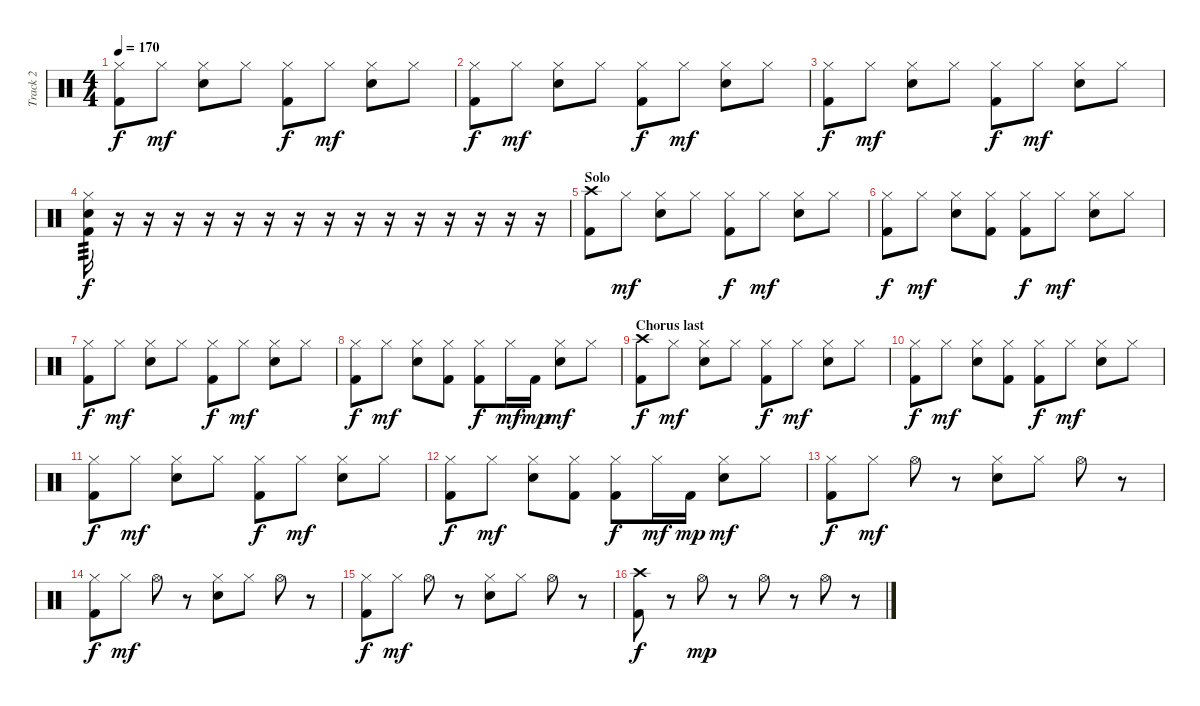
\track ("Track 2" "Track 2") {instrument percussion}
\staff {score}
\articulation defaults
\ts (4 4)
\tempo 170
\clef neutral
\ks c
("Hi-Hat (closed)" "Kick (hit) 2").8{dy f} "Hi-Hat (closed)".8{dy mf} ("Hi-Hat (closed)" "Electric Snare (hit)").8 "Hi-Hat (closed)".8 ("Hi-Hat (closed)" "Kick (hit) 2").8{dy f} "Hi-Hat (closed)".8{dy mf} ("Hi-Hat (closed)" "Electric Snare (hit)").8 "Hi-Hat (closed)".8 |
("Hi-Hat (closed)" "Kick (hit) 2").8{dy f} "Hi-Hat (closed)".8{dy mf} ("Hi-Hat (closed)" "Electric Snare (hit)").8 "Hi-Hat (closed)".8 ("Hi-Hat (closed)" "Kick (hit) 2").8{dy f} "Hi-Hat (closed)".8{dy mf} ("Hi-Hat (closed)" "Electric Snare (hit)").8 "Hi-Hat (closed)".8 |
("Hi-Hat (closed)" "Kick (hit) 2").8{dy f} "Hi-Hat (closed)".8{dy mf} ("Hi-Hat (closed)" "Electric Snare (hit)").8 "Hi-Hat (closed)".8 ("Hi-Hat (closed)" "Kick (hit) 2").8{dy f} "Hi-Hat (closed)".8{dy mf} ("Hi-Hat (closed)" "Electric Snare (hit)").8 "Hi-Hat (closed)".8 |
("Hi-Hat (closed)" "Electric Snare (hit)" "Kick (hit) 2").16{tp 3 dy f} r.16 r.16 r.16 r.16 r.16 r.16 r.16 r.16 r.16 r.16 r.16 r.16 r.16 r.16 r.16 |
\section ("" "Solo")
("Crash high (hit)" "Kick (hit) 2").8 "Hi-Hat (closed)".8{dy mf} ("Hi-Hat (closed)" "Electric Snare (hit)").8 "Hi-Hat (closed)".8 ("Hi-Hat (closed)" "Kick (hit) 2").8{dy f} "Hi-Hat (closed)".8{dy mf} ("Hi-Hat (closed)" "Electric Snare (hit)").8 "Hi-Hat (closed)".8 |
("Hi-Hat (closed)" "Kick (hit) 2").8{dy f} "Hi-Hat (closed)".8{dy mf} ("Hi-Hat (closed)" "Electric Snare (hit)").8 ("Hi-Hat (closed)" "Kick (hit) 2").8 ("Hi-Hat (closed)" "Kick (hit) 2").8{dy f} "Hi-Hat (closed)".8{dy mf} ("Hi-Hat (closed)" "Electric Snare (hit)").8 "Hi-Hat (closed)".8 |
("Hi-Hat (closed)" "Kick (hit) 2").8{dy f} "Hi-Hat (closed)".8{dy mf} ("Hi-Hat (closed)" "Electric Snare (hit)").8 "Hi-Hat (closed)".8 ("Hi-Hat (closed)" "Kick (hit) 2").8{dy f} "Hi-Hat (closed)".8{dy mf} ("Hi-Hat (closed)" "Electric Snare (hit)").8 "Hi-Hat (closed)".8 |
("Hi-Hat (closed)" "Kick (hit) 2").8{dy f} "Hi-Hat (closed)".8{dy mf} ("Hi-Hat (closed)" "Electric Snare (hit)").8 ("Hi-Hat (closed)" "Kick (hit) 2").8 ("Hi-Hat (closed)" "Kick (hit) 2").8{dy f} "Hi-Hat (closed)".16{dy mf} "Kick (hit) 2".16{dy mp} ("Hi-Hat (closed)" "Electric Snare (hit)").8{dy mf} "Hi-Hat (closed)".8 |
\section ("" "Chorus last")
("Crash high (hit)" "Kick (hit) 2").8{dy f} "Hi-Hat (closed)".8{dy mf} ("Hi-Hat (closed)" "Electric Snare (hit)").8 "Hi-Hat (closed)".8 ("Hi-Hat (closed)" "Kick (hit) 2").8{dy f} "Hi-Hat (closed)".8{dy mf} ("Hi-Hat (closed)" "Electric Snare (hit)").8 "Hi-Hat (closed)".8 |
("Hi-Hat (closed)" "Kick (hit) 2").8{dy f} "Hi-Hat (closed)".8{dy mf} ("Hi-Hat (closed)" "Electric Snare (hit)").8 ("Hi-Hat (closed)" "Kick (hit) 2").8 ("Hi-Hat (closed)" "Kick (hit) 2").8{dy f} "Hi-Hat (closed)".8{dy mf} ("Hi-Hat (closed)" "Electric Snare (hit)").8 "Hi-Hat (closed)".8 |
("Hi-Hat (closed)" "Kick (hit) 2").8{dy f} "Hi-Hat (closed)".8{dy mf} ("Hi-Hat (closed)" "Electric Snare (hit)").8 "Hi-Hat (closed)".8 ("Hi-Hat (closed)" "Kick (hit) 2").8{dy f} "Hi-Hat (closed)".8{dy mf} ("Hi-Hat (closed)" "Electric Snare (hit)").8 "Hi-Hat (closed)".8 |
("Hi-Hat (closed)" "Kick (hit) 2").8{dy f} "Hi-Hat (closed)".8{dy mf} ("Hi-Hat (closed)" "Electric Snare (hit)").8 ("Hi-Hat (closed)" "Kick (hit) 2").8 ("Hi-Hat (closed)" "Kick (hit) 2").8{dy f} "Hi-Hat (closed)".16{dy mf} "Kick (hit) 2".16{dy mp} ("Hi-Hat (closed)" "Electric Snare (hit)").8{dy mf} "Hi-Hat (closed)".8 |
("Hi-Hat (closed)" "Kick (hit) 2").8{dy f} "Hi-Hat (closed)".8{dy mf} "Hi-Hat (open)".8 r.8 ("Hi-Hat (closed)" "Electric Snare (hit)").8 "Hi-Hat (closed)".8 "Hi-Hat (open)".8 r.8 |
("Hi-Hat (closed)" "Kick (hit) 2").8{dy f} "Hi-Hat (closed)".8{dy mf} "Hi-Hat (open)".8 r.8 ("Hi-Hat (closed)" "Electric Snare (hit)").8 "Hi-Hat (closed)".8 "Hi-Hat (open)".8 r.8 |
("Hi-Hat (closed)" "Kick (hit) 2").8{dy f} "Hi-Hat (closed)".8{dy mf} "Hi-Hat (open)".8 r.8 ("Hi-Hat (closed)" "Electric Snare (hit)").8 "Hi-Hat (closed)".8 "Hi-Hat (open)".8 r.8 |
("Crash high (hit)" "Kick (hit) 2").8{dy f} r.8 "Hi-Hat (open)".8{dy mp} r.8 "Hi-Hat (open)".8 r.8 "Hi-Hat (open)".8 r.8
